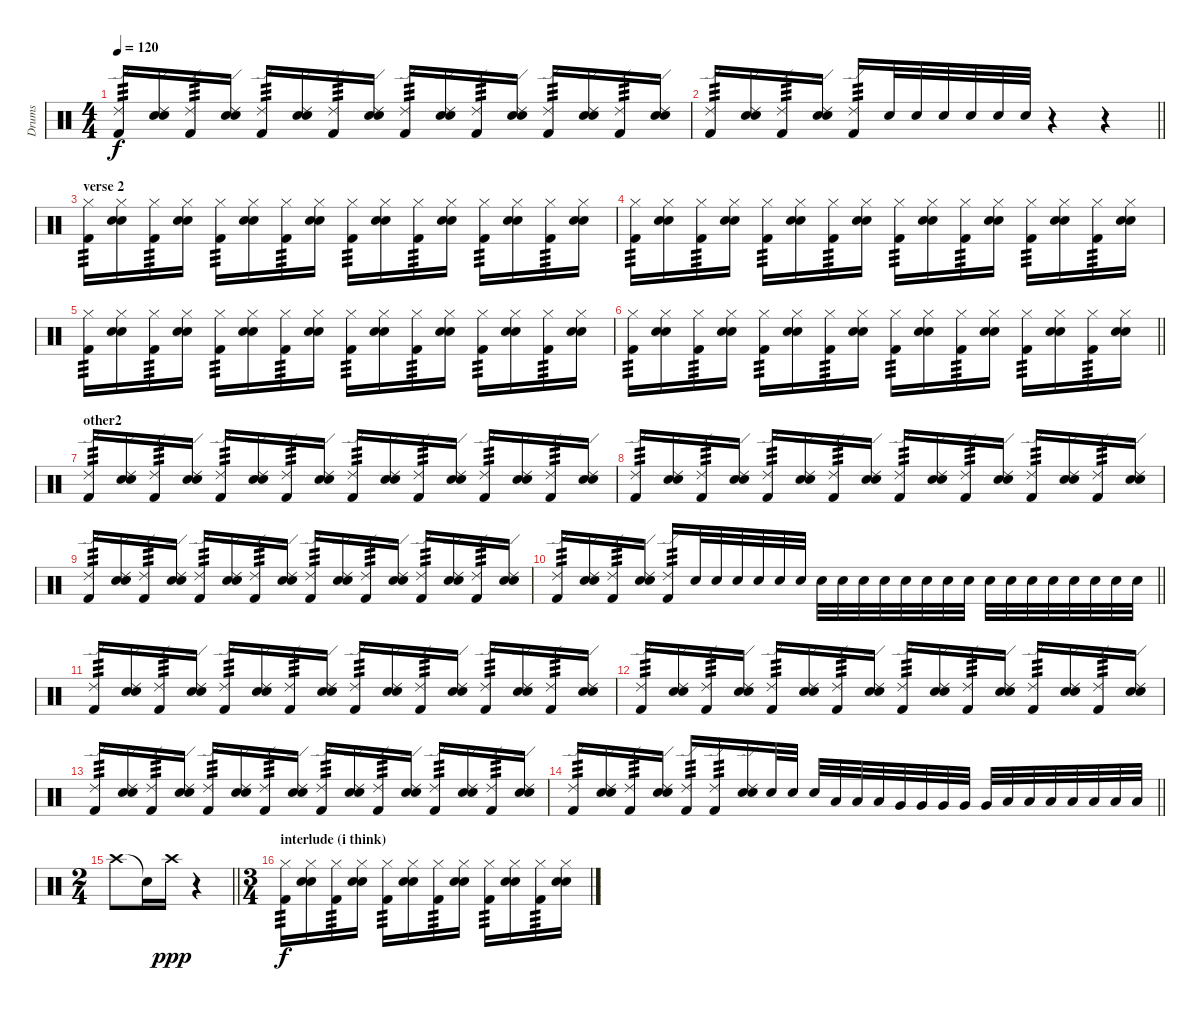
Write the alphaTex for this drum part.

\track ("Drums" "Drums") {instrument percussion}
\staff {score}
\articulation defaults
\ts (4 4)
\tempo 120
\clef neutral
\ks c
("Ride (edge) 2" "Kick (hit) 2").16{tp 3 dy f} ("Ride (edge) 2" "Snare (hit) 2" "Electric Snare (hit)").16 ("Ride (edge) 2" "Kick (hit) 2").16{tp 3} ("Ride (edge) 2" "Snare (hit) 2" "Electric Snare (hit)").16 ("Ride (edge) 2" "Kick (hit) 2").16{tp 3} ("Ride (edge) 2" "Snare (hit) 2" "Electric Snare (hit)").16 ("Ride (edge) 2" "Kick (hit) 2").16{tp 3} ("Ride (edge) 2" "Snare (hit) 2" "Electric Snare (hit)").16 ("Ride (edge) 2" "Kick (hit) 2").16{tp 3} ("Ride (edge) 2" "Snare (hit) 2" "Electric Snare (hit)").16 ("Ride (edge) 2" "Kick (hit) 2").16{tp 3} ("Ride (edge) 2" "Snare (hit) 2" "Electric Snare (hit)").16 ("Ride (edge) 2" "Kick (hit) 2").16{tp 3} ("Ride (edge) 2" "Snare (hit) 2" "Electric Snare (hit)").16 ("Ride (edge) 2" "Kick (hit) 2").16{tp 3} ("Ride (edge) 2" "Snare (hit) 2" "Electric Snare (hit)").16 |
\barLineRight lightlight
("Ride (edge) 2" "Kick (hit) 2").16{tp 3} ("Ride (edge) 2" "Snare (hit) 2" "Electric Snare (hit)").16 ("Ride (edge) 2" "Kick (hit) 2").16{tp 3} ("Ride (edge) 2" "Snare (hit) 2" "Electric Snare (hit)").16 ("Ride (edge) 2" "Kick (hit) 2").16{tp 3} "Electric Snare (hit)".32 "Electric Snare (hit)".32 "Electric Snare (hit)".32 "Electric Snare (hit)".32 "Electric Snare (hit)".32 "Electric Snare (hit)".32 r.4 r.4 |
\section ("" "verse 2")
("Hi-Hat (closed)" "Kick (hit) 2").16{tp 3} ("Hi-Hat (closed)" "Snare (hit) 2" "Electric Snare (hit)").16 ("Hi-Hat (closed)" "Kick (hit) 2").16{tp 3} ("Hi-Hat (closed)" "Snare (hit) 2" "Electric Snare (hit)").16 ("Hi-Hat (closed)" "Kick (hit) 2").16{tp 3} ("Hi-Hat (closed)" "Snare (hit) 2" "Electric Snare (hit)").16 ("Hi-Hat (closed)" "Kick (hit) 2").16{tp 3} ("Hi-Hat (closed)" "Snare (hit) 2" "Electric Snare (hit)").16 ("Hi-Hat (closed)" "Kick (hit) 2").16{tp 3} ("Hi-Hat (closed)" "Snare (hit) 2" "Electric Snare (hit)").16 ("Hi-Hat (closed)" "Kick (hit) 2").16{tp 3} ("Hi-Hat (closed)" "Snare (hit) 2" "Electric Snare (hit)").16 ("Hi-Hat (closed)" "Kick (hit) 2").16{tp 3} ("Hi-Hat (closed)" "Snare (hit) 2" "Electric Snare (hit)").16 ("Hi-Hat (closed)" "Kick (hit) 2").16{tp 3} ("Hi-Hat (closed)" "Snare (hit) 2" "Electric Snare (hit)").16 |
("Hi-Hat (closed)" "Kick (hit) 2").16{tp 3} ("Hi-Hat (closed)" "Snare (hit) 2" "Electric Snare (hit)").16 ("Hi-Hat (closed)" "Kick (hit) 2").16{tp 3} ("Hi-Hat (closed)" "Snare (hit) 2" "Electric Snare (hit)").16 ("Hi-Hat (closed)" "Kick (hit) 2").16{tp 3} ("Hi-Hat (closed)" "Snare (hit) 2" "Electric Snare (hit)").16 ("Hi-Hat (closed)" "Kick (hit) 2").16{tp 3} ("Hi-Hat (closed)" "Snare (hit) 2" "Electric Snare (hit)").16 ("Hi-Hat (closed)" "Kick (hit) 2").16{tp 3} ("Hi-Hat (closed)" "Snare (hit) 2" "Electric Snare (hit)").16 ("Hi-Hat (closed)" "Kick (hit) 2").16{tp 3} ("Hi-Hat (closed)" "Snare (hit) 2" "Electric Snare (hit)").16 ("Hi-Hat (closed)" "Kick (hit) 2").16{tp 3} ("Hi-Hat (closed)" "Snare (hit) 2" "Electric Snare (hit)").16 ("Hi-Hat (closed)" "Kick (hit) 2").16{tp 3} ("Hi-Hat (closed)" "Snare (hit) 2" "Electric Snare (hit)").16 |
("Hi-Hat (closed)" "Kick (hit) 2").16{tp 3} ("Hi-Hat (closed)" "Snare (hit) 2" "Electric Snare (hit)").16 ("Hi-Hat (closed)" "Kick (hit) 2").16{tp 3} ("Hi-Hat (closed)" "Snare (hit) 2" "Electric Snare (hit)").16 ("Hi-Hat (closed)" "Kick (hit) 2").16{tp 3} ("Hi-Hat (closed)" "Snare (hit) 2" "Electric Snare (hit)").16 ("Hi-Hat (closed)" "Kick (hit) 2").16{tp 3} ("Hi-Hat (closed)" "Snare (hit) 2" "Electric Snare (hit)").16 ("Hi-Hat (closed)" "Kick (hit) 2").16{tp 3} ("Hi-Hat (closed)" "Snare (hit) 2" "Electric Snare (hit)").16 ("Hi-Hat (closed)" "Kick (hit) 2").16{tp 3} ("Hi-Hat (closed)" "Snare (hit) 2" "Electric Snare (hit)").16 ("Hi-Hat (closed)" "Kick (hit) 2").16{tp 3} ("Hi-Hat (closed)" "Snare (hit) 2" "Electric Snare (hit)").16 ("Hi-Hat (closed)" "Kick (hit) 2").16{tp 3} ("Hi-Hat (closed)" "Snare (hit) 2" "Electric Snare (hit)").16 |
\barLineRight lightlight
("Hi-Hat (closed)" "Kick (hit) 2").16{tp 3} ("Hi-Hat (closed)" "Snare (hit) 2" "Electric Snare (hit)").16 ("Hi-Hat (closed)" "Kick (hit) 2").16{tp 3} ("Hi-Hat (closed)" "Snare (hit) 2" "Electric Snare (hit)").16 ("Hi-Hat (closed)" "Kick (hit) 2").16{tp 3} ("Hi-Hat (closed)" "Snare (hit) 2" "Electric Snare (hit)").16 ("Hi-Hat (closed)" "Kick (hit) 2").16{tp 3} ("Hi-Hat (closed)" "Snare (hit) 2" "Electric Snare (hit)").16 ("Hi-Hat (closed)" "Kick (hit) 2").16{tp 3} ("Hi-Hat (closed)" "Snare (hit) 2" "Electric Snare (hit)").16 ("Hi-Hat (closed)" "Kick (hit) 2").16{tp 3} ("Hi-Hat (closed)" "Snare (hit) 2" "Electric Snare (hit)").16 ("Hi-Hat (closed)" "Kick (hit) 2").16{tp 3} ("Hi-Hat (closed)" "Snare (hit) 2" "Electric Snare (hit)").16 ("Hi-Hat (closed)" "Kick (hit) 2").16{tp 3} ("Hi-Hat (closed)" "Snare (hit) 2" "Electric Snare (hit)").16 |
\section ("" "other2")
("Ride (edge) 2" "Kick (hit) 2").16{tp 3} ("Ride (edge) 2" "Snare (hit) 2" "Electric Snare (hit)").16 ("Ride (edge) 2" "Kick (hit) 2").16{tp 3} ("Ride (edge) 2" "Snare (hit) 2" "Electric Snare (hit)").16 ("Ride (edge) 2" "Kick (hit) 2").16{tp 3} ("Ride (edge) 2" "Snare (hit) 2" "Electric Snare (hit)").16 ("Ride (edge) 2" "Kick (hit) 2").16{tp 3} ("Ride (edge) 2" "Snare (hit) 2" "Electric Snare (hit)").16 ("Ride (edge) 2" "Kick (hit) 2").16{tp 3} ("Ride (edge) 2" "Snare (hit) 2" "Electric Snare (hit)").16 ("Ride (edge) 2" "Kick (hit) 2").16{tp 3} ("Ride (edge) 2" "Snare (hit) 2" "Electric Snare (hit)").16 ("Ride (edge) 2" "Kick (hit) 2").16{tp 3} ("Ride (edge) 2" "Snare (hit) 2" "Electric Snare (hit)").16 ("Ride (edge) 2" "Kick (hit) 2").16{tp 3} ("Ride (edge) 2" "Snare (hit) 2" "Electric Snare (hit)").16 |
("Ride (edge) 2" "Kick (hit) 2").16{tp 3} ("Ride (edge) 2" "Snare (hit) 2" "Electric Snare (hit)").16 ("Ride (edge) 2" "Kick (hit) 2").16{tp 3} ("Ride (edge) 2" "Snare (hit) 2" "Electric Snare (hit)").16 ("Ride (edge) 2" "Kick (hit) 2").16{tp 3} ("Ride (edge) 2" "Snare (hit) 2" "Electric Snare (hit)").16 ("Ride (edge) 2" "Kick (hit) 2").16{tp 3} ("Ride (edge) 2" "Snare (hit) 2" "Electric Snare (hit)").16 ("Ride (edge) 2" "Kick (hit) 2").16{tp 3} ("Ride (edge) 2" "Snare (hit) 2" "Electric Snare (hit)").16 ("Ride (edge) 2" "Kick (hit) 2").16{tp 3} ("Ride (edge) 2" "Snare (hit) 2" "Electric Snare (hit)").16 ("Ride (edge) 2" "Kick (hit) 2").16{tp 3} ("Ride (edge) 2" "Snare (hit) 2" "Electric Snare (hit)").16 ("Ride (edge) 2" "Kick (hit) 2").16{tp 3} ("Ride (edge) 2" "Snare (hit) 2" "Electric Snare (hit)").16 |
("Ride (edge) 2" "Kick (hit) 2").16{tp 3} ("Ride (edge) 2" "Snare (hit) 2" "Electric Snare (hit)").16 ("Ride (edge) 2" "Kick (hit) 2").16{tp 3} ("Ride (edge) 2" "Snare (hit) 2" "Electric Snare (hit)").16 ("Ride (edge) 2" "Kick (hit) 2").16{tp 3} ("Ride (edge) 2" "Snare (hit) 2" "Electric Snare (hit)").16 ("Ride (edge) 2" "Kick (hit) 2").16{tp 3} ("Ride (edge) 2" "Snare (hit) 2" "Electric Snare (hit)").16 ("Ride (edge) 2" "Kick (hit) 2").16{tp 3} ("Ride (edge) 2" "Snare (hit) 2" "Electric Snare (hit)").16 ("Ride (edge) 2" "Kick (hit) 2").16{tp 3} ("Ride (edge) 2" "Snare (hit) 2" "Electric Snare (hit)").16 ("Ride (edge) 2" "Kick (hit) 2").16{tp 3} ("Ride (edge) 2" "Snare (hit) 2" "Electric Snare (hit)").16 ("Ride (edge) 2" "Kick (hit) 2").16{tp 3} ("Ride (edge) 2" "Snare (hit) 2" "Electric Snare (hit)").16 |
\barLineRight lightlight
("Ride (edge) 2" "Kick (hit) 2").16{tp 3} ("Ride (edge) 2" "Snare (hit) 2" "Electric Snare (hit)").16 ("Ride (edge) 2" "Kick (hit) 2").16{tp 3} ("Ride (edge) 2" "Snare (hit) 2" "Electric Snare (hit)").16 ("Ride (edge) 2" "Kick (hit) 2").16{tp 3} "Electric Snare (hit)".32 "Electric Snare (hit)".32 "Electric Snare (hit)".32 "Electric Snare (hit)".32 "Electric Snare (hit)".32 "Electric Snare (hit)".32 "Electric Snare (hit)".32 "Electric Snare (hit)".32 "Electric Snare (hit)".32 "Electric Snare (hit)".32 "Electric Snare (hit)".32 "Electric Snare (hit)".32 "Electric Snare (hit)".32 "Electric Snare (hit)".32 "Electric Snare (hit)".32 "Electric Snare (hit)".32 "Electric Snare (hit)".32 "Electric Snare (hit)".32 "Electric Snare (hit)".32 "Electric Snare (hit)".32 "Electric Snare (hit)".32 "Electric Snare (hit)".32 |
("Ride (edge) 2" "Kick (hit) 2").16{tp 3} ("Ride (edge) 2" "Snare (hit) 2" "Electric Snare (hit)").16 ("Ride (edge) 2" "Kick (hit) 2").16{tp 3} ("Ride (edge) 2" "Snare (hit) 2" "Electric Snare (hit)").16 ("Ride (edge) 2" "Kick (hit) 2").16{tp 3} ("Ride (edge) 2" "Snare (hit) 2" "Electric Snare (hit)").16 ("Ride (edge) 2" "Kick (hit) 2").16{tp 3} ("Ride (edge) 2" "Snare (hit) 2" "Electric Snare (hit)").16 ("Ride (edge) 2" "Kick (hit) 2").16{tp 3} ("Ride (edge) 2" "Snare (hit) 2" "Electric Snare (hit)").16 ("Ride (edge) 2" "Kick (hit) 2").16{tp 3} ("Ride (edge) 2" "Snare (hit) 2" "Electric Snare (hit)").16 ("Ride (edge) 2" "Kick (hit) 2").16{tp 3} ("Ride (edge) 2" "Snare (hit) 2" "Electric Snare (hit)").16 ("Ride (edge) 2" "Kick (hit) 2").16{tp 3} ("Ride (edge) 2" "Snare (hit) 2" "Electric Snare (hit)").16 |
("Ride (edge) 2" "Kick (hit) 2").16{tp 3} ("Ride (edge) 2" "Snare (hit) 2" "Electric Snare (hit)").16 ("Ride (edge) 2" "Kick (hit) 2").16{tp 3} ("Ride (edge) 2" "Snare (hit) 2" "Electric Snare (hit)").16 ("Ride (edge) 2" "Kick (hit) 2").16{tp 3} ("Ride (edge) 2" "Snare (hit) 2" "Electric Snare (hit)").16 ("Ride (edge) 2" "Kick (hit) 2").16{tp 3} ("Ride (edge) 2" "Snare (hit) 2" "Electric Snare (hit)").16 ("Ride (edge) 2" "Kick (hit) 2").16{tp 3} ("Ride (edge) 2" "Snare (hit) 2" "Electric Snare (hit)").16 ("Ride (edge) 2" "Kick (hit) 2").16{tp 3} ("Ride (edge) 2" "Snare (hit) 2" "Electric Snare (hit)").16 ("Ride (edge) 2" "Kick (hit) 2").16{tp 3} ("Ride (edge) 2" "Snare (hit) 2" "Electric Snare (hit)").16 ("Ride (edge) 2" "Kick (hit) 2").16{tp 3} ("Ride (edge) 2" "Snare (hit) 2" "Electric Snare (hit)").16 |
("Ride (edge) 2" "Kick (hit) 2").16{tp 3} ("Ride (edge) 2" "Snare (hit) 2" "Electric Snare (hit)").16 ("Ride (edge) 2" "Kick (hit) 2").16{tp 3} ("Ride (edge) 2" "Snare (hit) 2" "Electric Snare (hit)").16 ("Ride (edge) 2" "Kick (hit) 2").16{tp 3} ("Ride (edge) 2" "Snare (hit) 2" "Electric Snare (hit)").16 ("Ride (edge) 2" "Kick (hit) 2").16{tp 3} ("Ride (edge) 2" "Snare (hit) 2" "Electric Snare (hit)").16 ("Ride (edge) 2" "Kick (hit) 2").16{tp 3} ("Ride (edge) 2" "Snare (hit) 2" "Electric Snare (hit)").16 ("Ride (edge) 2" "Kick (hit) 2").16{tp 3} ("Ride (edge) 2" "Snare (hit) 2" "Electric Snare (hit)").16 ("Ride (edge) 2" "Kick (hit) 2").16{tp 3} ("Ride (edge) 2" "Snare (hit) 2" "Electric Snare (hit)").16 ("Ride (edge) 2" "Kick (hit) 2").16{tp 3} ("Ride (edge) 2" "Snare (hit) 2" "Electric Snare (hit)").16 |
\barLineRight lightlight
("Ride (edge) 2" "Kick (hit) 2").16{tp 3} ("Ride (edge) 2" "Snare (hit) 2" "Electric Snare (hit)").16 ("Ride (edge) 2" "Kick (hit) 2").16{tp 3} ("Ride (edge) 2" "Snare (hit) 2" "Electric Snare (hit)").16 ("Ride (edge) 2" "Kick (hit) 2").16{tp 3} ("Ride (edge) 2" "Kick (hit) 2").16{tp 3} ("Ride (edge) 2" "Snare (hit) 2" "Electric Snare (hit)").16 "Electric Snare (hit)".32 "Electric Snare (hit)".32 "Electric Snare (hit)".32 "Low Tom (hit)".32 "Low Tom (hit)".32 "Low Tom (hit)".32 "Very Low Tom (hit)".32 "Very Low Tom (hit)".32 "Very Low Tom (hit)".32 "Very Low Tom (hit)".32 "Very Low Tom (hit)".32 "Low Floor Tom (hit)".32 "Low Floor Tom (hit)".32 "Low Floor Tom (hit)".32 "Low Floor Tom (hit)".32 "Low Floor Tom (hit)".32 "Low Floor Tom (hit)".32 "Low Floor Tom (hit)".32 |
\ts (2 4)
\barLineRight lightlight "Crash high (hit)".8 "Snare (hit)"{t}.16 "Crash high (hit)".16{dy ppp}
r.4 |
\ts (3 4)
\section ("" "interlude (i think)")
("Hi-Hat (closed)" "Kick (hit) 2").16{tp 3 dy f} ("Hi-Hat (closed)" "Snare (hit) 2" "Electric Snare (hit)").16 ("Hi-Hat (closed)" "Kick (hit) 2").16{tp 3} ("Hi-Hat (closed)" "Snare (hit) 2" "Electric Snare (hit)").16 ("Hi-Hat (closed)" "Kick (hit) 2").16{tp 3} ("Hi-Hat (closed)" "Snare (hit) 2" "Electric Snare (hit)").16 ("Hi-Hat (closed)" "Kick (hit) 2").16{tp 3} ("Hi-Hat (closed)" "Snare (hit) 2" "Electric Snare (hit)").16 ("Hi-Hat (closed)" "Kick (hit) 2").16{tp 3} ("Hi-Hat (closed)" "Snare (hit) 2" "Electric Snare (hit)").16 ("Hi-Hat (closed)" "Kick (hit) 2").16{tp 3} ("Hi-Hat (closed)" "Snare (hit) 2" "Electric Snare (hit)").16
